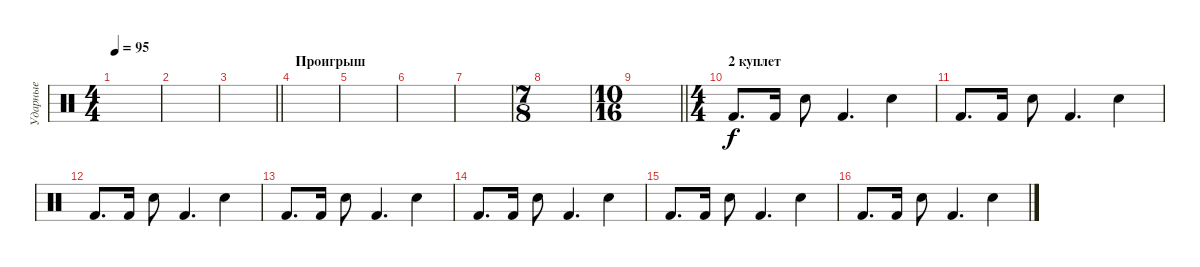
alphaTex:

\track ("Ударные" "Ударные") {instrument percussion}
\staff {score}
\articulation defaults
\ts (4 4)
\tempo 95
\clef neutral
\ks c
|
|
\barLineRight lightlight
|
\section ("" "Проигрыш")
|
|
|
|
\ts (7 8)
|
\ts (10 16)
\barLineRight lightlight
|
\ts (4 4)
\section ("" "2 куплет")
"Kick (hit) 2".8{d} "Kick (hit) 2".16 "Snare (hit) 2".8 "Kick (hit) 2".4{d} "Snare (hit) 2".4 |
"Kick (hit) 2".8{d} "Kick (hit) 2".16 "Snare (hit) 2".8 "Kick (hit) 2".4{d} "Snare (hit) 2".4 |
"Kick (hit) 2".8{d} "Kick (hit) 2".16 "Snare (hit) 2".8 "Kick (hit) 2".4{d} "Snare (hit) 2".4 |
"Kick (hit) 2".8{d} "Kick (hit) 2".16 "Snare (hit) 2".8 "Kick (hit) 2".4{d} "Snare (hit) 2".4 |
"Kick (hit) 2".8{d} "Kick (hit) 2".16 "Snare (hit) 2".8 "Kick (hit) 2".4{d} "Snare (hit) 2".4 |
"Kick (hit) 2".8{d} "Kick (hit) 2".16 "Snare (hit) 2".8 "Kick (hit) 2".4{d} "Snare (hit) 2".4 |
"Kick (hit) 2".8{d} "Kick (hit) 2".16 "Snare (hit) 2".8 "Kick (hit) 2".4{d} "Snare (hit) 2".4
